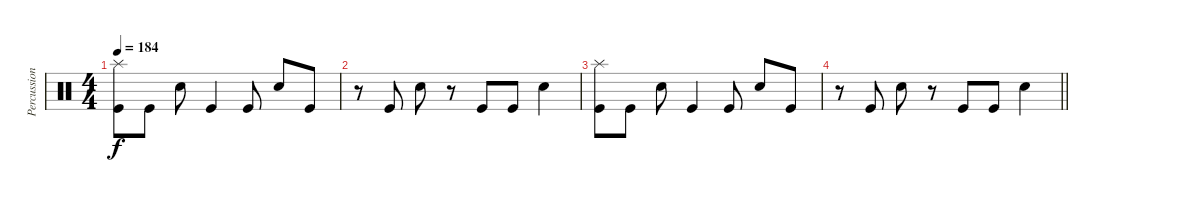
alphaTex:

\track ("Percussions" "Percussion") {instrument percussion}
\staff {score}
\articulation defaults
\ts (4 4)
\tempo 184
\clef neutral
\ks c
("Splash (hit)" "Kick (hit)").8{dy f} "Kick (hit)".8 "Electric Snare (hit)".8 "Kick (hit)".4 "Kick (hit)".8 "Electric Snare (hit)".8 "Kick (hit)".8 |
r.8 "Kick (hit)".8 "Electric Snare (hit)".8 r.8 "Kick (hit)".8 "Kick (hit)".8 "Electric Snare (hit)".4 |
("Splash (hit)" "Kick (hit)").8 "Kick (hit)".8 "Electric Snare (hit)".8 "Kick (hit)".4 "Kick (hit)".8 "Electric Snare (hit)".8 "Kick (hit)".8 |
\barLineRight lightlight
r.8 "Kick (hit)".8 "Electric Snare (hit)".8 r.8 "Kick (hit)".8 "Kick (hit)".8 "Electric Snare (hit)".4
